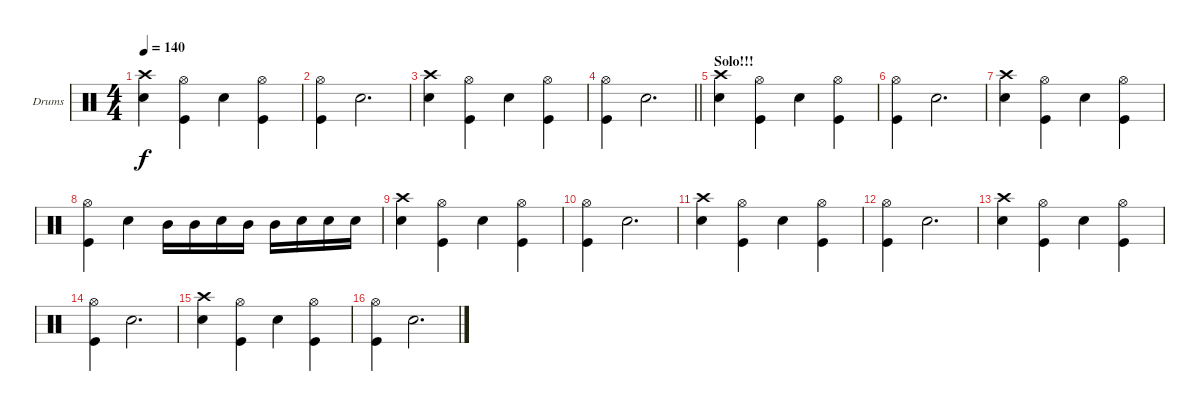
\bracketExtendMode groupsimilarinstruments
\firstSystemTrackNameOrientation horizontal
\otherSystemsTrackNameOrientation horizontal
\track ("Batterie - Anders Johansson" "Drums") {instrument percussion}
\staff {score}
\articulation defaults
\ts (4 4)
\tempo 140
\clef neutral
\ks c
("Crash high (hit)" "Snare (hit) 2").4{dy f} ("Hi-Hat (open)" "Kick (hit)").4 "Snare (hit) 2".4 ("Hi-Hat (open)" "Kick (hit)").4 |
("Hi-Hat (open)" "Kick (hit)").4 "Snare (hit) 2".2{d} |
("Crash high (hit)" "Snare (hit) 2").4 ("Hi-Hat (open)" "Kick (hit)").4 "Snare (hit) 2".4 ("Hi-Hat (open)" "Kick (hit)").4 |
\barLineRight lightlight
("Hi-Hat (open)" "Kick (hit)").4 "Snare (hit) 2".2{d} |
\section ("" "Solo!!!")
("Crash high (hit)" "Snare (hit) 2").4 ("Hi-Hat (open)" "Kick (hit)").4 "Snare (hit) 2".4 ("Hi-Hat (open)" "Kick (hit)").4 |
("Hi-Hat (open)" "Kick (hit)").4 "Snare (hit) 2".2{d} |
("Crash high (hit)" "Snare (hit) 2").4 ("Hi-Hat (open)" "Kick (hit)").4 "Snare (hit) 2".4 ("Hi-Hat (open)" "Kick (hit)").4 |
("Hi-Hat (open)" "Kick (hit)").4 "Snare (hit) 2".4 "Mid Tom (hit)".16 "Mid Tom (hit)".16 "Snare (hit) 2".16 "Mid Tom (hit)".16 "Mid Tom (hit)".16 "Snare (hit) 2".16 "Snare (hit) 2".16 "Snare (hit) 2".16 |
("Crash high (hit)" "Snare (hit) 2").4 ("Hi-Hat (open)" "Kick (hit)").4 "Snare (hit) 2".4 ("Hi-Hat (open)" "Kick (hit)").4 |
("Hi-Hat (open)" "Kick (hit)").4 "Snare (hit) 2".2{d} |
("Crash high (hit)" "Snare (hit) 2").4 ("Hi-Hat (open)" "Kick (hit)").4 "Snare (hit) 2".4 ("Hi-Hat (open)" "Kick (hit)").4 |
("Hi-Hat (open)" "Kick (hit)").4 "Snare (hit) 2".2{d} |
("Crash high (hit)" "Snare (hit) 2").4 ("Hi-Hat (open)" "Kick (hit)").4 "Snare (hit) 2".4 ("Hi-Hat (open)" "Kick (hit)").4 |
("Hi-Hat (open)" "Kick (hit)").4 "Snare (hit) 2".2{d} |
("Crash high (hit)" "Snare (hit) 2").4 ("Hi-Hat (open)" "Kick (hit)").4 "Snare (hit) 2".4 ("Hi-Hat (open)" "Kick (hit)").4 |
("Hi-Hat (open)" "Kick (hit)").4 "Snare (hit) 2".2{d}
